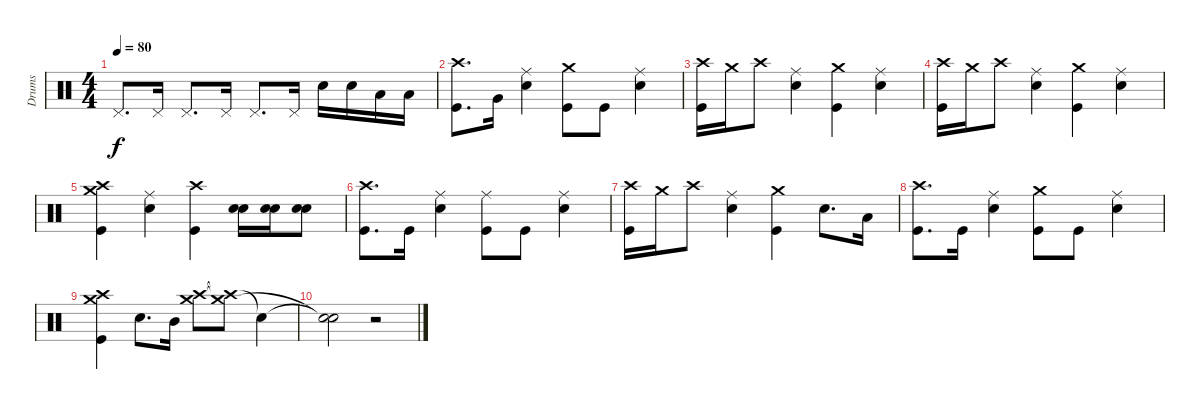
\track ("Drums" "Drums") {instrument percussion}
\staff {score}
\articulation defaults
\ts (4 4)
\tempo 80
\clef neutral
\ks c "Pedal Hi-Hat (hit)".8{d dy f volume 12} "Pedal Hi-Hat (hit)".16 "Pedal Hi-Hat (hit)".8{d} "Pedal Hi-Hat (hit)".16 "Pedal Hi-Hat (hit)".8{d} "Pedal Hi-Hat (hit)".16 "Snare (hit) 2".16{volume 13} "Snare (hit) 2".16 "Low Tom (hit)".16 "Low Tom (hit)".16
|
("Kick (hit)" "Crash high (hit)").8{d} "Very Low Tom (hit)".16 ("Snare (hit) 2" "Ride (middle)").4 ("Kick (hit)" "Crash medium (hit)").8 "Kick (hit)".8 ("Snare (hit) 2" "Ride (middle)").4 |
("Kick (hit)" "Crash high (hit)").16 "Crash medium (hit)".16 "Crash high (hit)".8 ("Snare (hit) 2" "Ride (middle)").4 ("Kick (hit)" "Crash medium (hit)").4 ("Snare (hit) 2" "Ride (middle)").4 |
("Kick (hit)" "Crash high (hit)").16 "Crash medium (hit)".16 "Crash high (hit)".8 ("Snare (hit) 2" "Ride (middle)").4 ("Kick (hit)" "Crash medium (hit)").4 ("Snare (hit) 2" "Ride (middle)").4 |
("Kick (hit)" "Crash high (hit)" "Crash medium (hit)").4 ("Snare (hit) 2" "Ride (middle)").4 ("Kick (hit)" "Crash high (hit)").4 ("Snare (hit) 2" "Snare (hit) 2").16 ("Snare (hit) 2" "Snare (hit) 2").16 ("Snare (hit) 2" "Snare (hit) 2").8 |
("Kick (hit)" "Crash high (hit)").8{d} "Kick (hit)".16 ("Snare (hit) 2" "Ride (middle)").4 ("Kick (hit)" "Ride (middle)").8 "Kick (hit)".8 ("Snare (hit) 2" "Ride (middle)").4 |
("Kick (hit)" "Crash high (hit)").16 "Crash medium (hit)".16 "Crash high (hit)".8 ("Snare (hit) 2" "Ride (middle)").4 ("Kick (hit)" "Crash medium (hit)").4 "Snare (hit) 2".8{d} "Low Tom (hit)".16 |
("Kick (hit)" "Crash high (hit)").8{d} "Kick (hit)".16 ("Snare (hit) 2" "Ride (middle)").4 ("Kick (hit)" "Crash medium (hit)").8 "Kick (hit)".8 ("Snare (hit) 2" "Ride (middle)").4 |
("Kick (hit)" "Crash high (hit)" "Crash medium (hit)").4 "Snare (hit) 2".8{d} "Mid Tom (hit)".16 ("Crash high (hit)" "Crash medium (hit)").8 ("Crash high (hit)"{t} "Crash medium (hit)"{t}).8 "Snare (hit)"{t}.4 |
("Snare (hit)"{t} "Snare (hit)"{t}).2{volume 13} r.2
